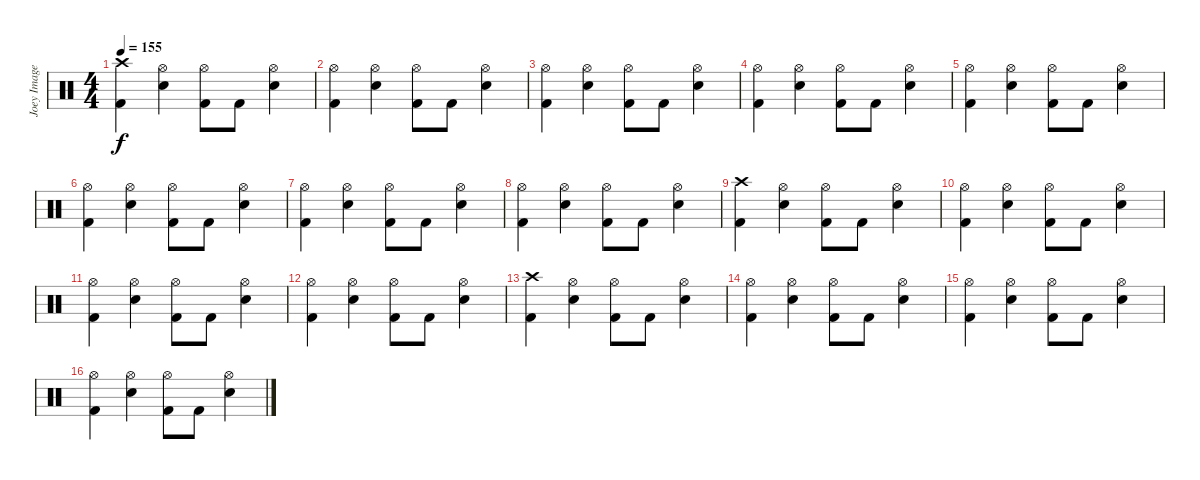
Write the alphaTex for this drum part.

\track ("Joey Image" "Joey Image") {instrument percussion}
\staff {score}
\articulation defaults
\ts (4 4)
\tempo 155
\clef neutral
\ks c
("Crash high (hit)" "Kick (hit) 2").4{dy f} ("Hi-Hat (open)" "Snare (hit) 2").4 ("Hi-Hat (open)" "Kick (hit) 2").8 "Kick (hit) 2".8 ("Hi-Hat (open)" "Snare (hit) 2").4 |
("Hi-Hat (open)" "Kick (hit) 2").4 ("Hi-Hat (open)" "Snare (hit) 2").4 ("Hi-Hat (open)" "Kick (hit) 2").8 "Kick (hit) 2".8 ("Hi-Hat (open)" "Snare (hit) 2").4 |
("Hi-Hat (open)" "Kick (hit) 2").4 ("Hi-Hat (open)" "Snare (hit) 2").4 ("Hi-Hat (open)" "Kick (hit) 2").8 "Kick (hit) 2".8 ("Hi-Hat (open)" "Snare (hit) 2").4 |
("Hi-Hat (open)" "Kick (hit) 2").4 ("Hi-Hat (open)" "Snare (hit) 2").4 ("Hi-Hat (open)" "Kick (hit) 2").8 "Kick (hit) 2".8 ("Hi-Hat (open)" "Snare (hit) 2").4 |
("Hi-Hat (open)" "Kick (hit) 2").4 ("Hi-Hat (open)" "Snare (hit) 2").4 ("Hi-Hat (open)" "Kick (hit) 2").8 "Kick (hit) 2".8 ("Hi-Hat (open)" "Snare (hit) 2").4 |
("Hi-Hat (open)" "Kick (hit) 2").4 ("Hi-Hat (open)" "Snare (hit) 2").4 ("Hi-Hat (open)" "Kick (hit) 2").8 "Kick (hit) 2".8 ("Hi-Hat (open)" "Snare (hit) 2").4 |
("Hi-Hat (open)" "Kick (hit) 2").4 ("Hi-Hat (open)" "Snare (hit) 2").4 ("Hi-Hat (open)" "Kick (hit) 2").8 "Kick (hit) 2".8 ("Hi-Hat (open)" "Snare (hit) 2").4 |
("Hi-Hat (open)" "Kick (hit) 2").4 ("Hi-Hat (open)" "Snare (hit) 2").4 ("Hi-Hat (open)" "Kick (hit) 2").8 "Kick (hit) 2".8 ("Hi-Hat (open)" "Snare (hit) 2").4 |
("Crash high (hit)" "Kick (hit) 2").4 ("Hi-Hat (open)" "Snare (hit) 2").4 ("Hi-Hat (open)" "Kick (hit) 2").8 "Kick (hit) 2".8 ("Hi-Hat (open)" "Snare (hit) 2").4 |
("Hi-Hat (open)" "Kick (hit) 2").4 ("Hi-Hat (open)" "Snare (hit) 2").4 ("Hi-Hat (open)" "Kick (hit) 2").8 "Kick (hit) 2".8 ("Hi-Hat (open)" "Snare (hit) 2").4 |
("Hi-Hat (open)" "Kick (hit) 2").4 ("Hi-Hat (open)" "Snare (hit) 2").4 ("Hi-Hat (open)" "Kick (hit) 2").8 "Kick (hit) 2".8 ("Hi-Hat (open)" "Snare (hit) 2").4 |
("Hi-Hat (open)" "Kick (hit) 2").4 ("Hi-Hat (open)" "Snare (hit) 2").4 ("Hi-Hat (open)" "Kick (hit) 2").8 "Kick (hit) 2".8 ("Hi-Hat (open)" "Snare (hit) 2").4 |
("Crash high (hit)" "Kick (hit) 2").4 ("Hi-Hat (open)" "Snare (hit) 2").4 ("Hi-Hat (open)" "Kick (hit) 2").8 "Kick (hit) 2".8 ("Hi-Hat (open)" "Snare (hit) 2").4 |
("Hi-Hat (open)" "Kick (hit) 2").4 ("Hi-Hat (open)" "Snare (hit) 2").4 ("Hi-Hat (open)" "Kick (hit) 2").8 "Kick (hit) 2".8 ("Hi-Hat (open)" "Snare (hit) 2").4 |
("Hi-Hat (open)" "Kick (hit) 2").4 ("Hi-Hat (open)" "Snare (hit) 2").4 ("Hi-Hat (open)" "Kick (hit) 2").8 "Kick (hit) 2".8 ("Hi-Hat (open)" "Snare (hit) 2").4 |
("Hi-Hat (open)" "Kick (hit) 2").4 ("Hi-Hat (open)" "Snare (hit) 2").4 ("Hi-Hat (open)" "Kick (hit) 2").8 "Kick (hit) 2".8 ("Hi-Hat (open)" "Snare (hit) 2").4
